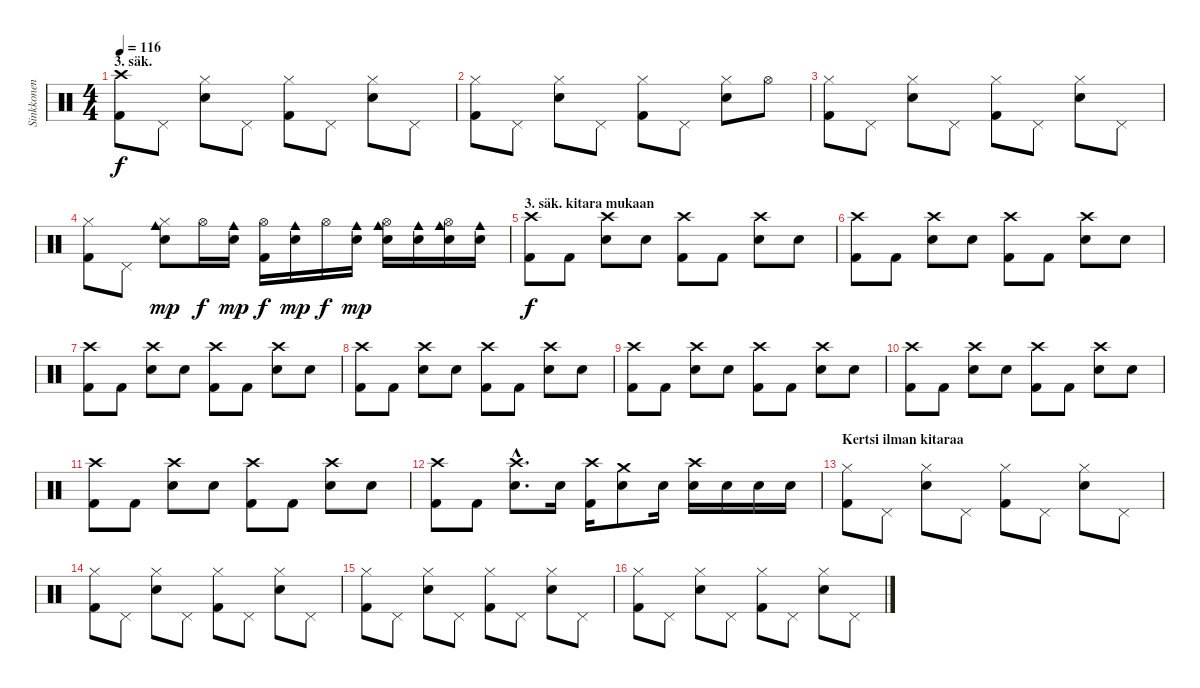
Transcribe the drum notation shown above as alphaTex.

\track ("Sinkkonen" "Sinkkonen") {instrument percussion}
\staff {score}
\articulation defaults
\ts (4 4)
\section ("" "3. säk.")
\tempo 116
\clef neutral
\ks c
("Kick (hit) 2" "Crash high (hit)").8{dy f} "Pedal Hi-Hat (hit)".8 ("Hi-Hat (closed)" "Snare (hit) 2").8 "Pedal Hi-Hat (hit)".8 ("Kick (hit) 2" "Hi-Hat (closed)").8 "Pedal Hi-Hat (hit)".8 ("Hi-Hat (closed)" "Snare (hit) 2").8 "Pedal Hi-Hat (hit)".8 |
("Kick (hit) 2" "Hi-Hat (closed)").8 "Pedal Hi-Hat (hit)".8 ("Hi-Hat (closed)" "Snare (hit) 2").8 "Pedal Hi-Hat (hit)".8 ("Kick (hit) 2" "Hi-Hat (closed)").8 "Pedal Hi-Hat (hit)".8 ("Hi-Hat (closed)" "Snare (hit) 2").8 "Hi-Hat (open)".8 |
("Kick (hit) 2" "Hi-Hat (closed)").8 "Pedal Hi-Hat (hit)".8 ("Hi-Hat (closed)" "Snare (hit) 2").8 "Pedal Hi-Hat (hit)".8 ("Kick (hit) 2" "Hi-Hat (closed)").8 "Pedal Hi-Hat (hit)".8 ("Hi-Hat (closed)" "Snare (hit) 2").8 "Pedal Hi-Hat (hit)".8 |
("Kick (hit) 2" "Hi-Hat (closed)").8 "Pedal Hi-Hat (hit)".8 ("Hi-Hat (closed)" "Snare (hit) 2" "Cowbell medium (hit)").8{dy mp} "Hi-Hat (open)".16{dy f} ("Snare (hit) 2" "Cowbell medium (hit)").16{dy mp} ("Kick (hit) 2" "Hi-Hat (open)").16{dy f} ("Snare (hit) 2" "Cowbell medium (hit)").16{dy mp} "Hi-Hat (open)".16{dy f} ("Snare (hit) 2" "Cowbell medium (hit)").16{dy mp} ("Hi-Hat (open)" "Snare (hit) 2" "Cowbell medium (hit)").16 ("Snare (hit) 2" "Cowbell medium (hit)").16 ("Hi-Hat (open)" "Snare (hit) 2" "Cowbell medium (hit)").16 ("Snare (hit) 2" "Cowbell medium (hit)").16 |
\section ("" "3. säk. kitara mukaan")
("Kick (hit) 2" "Crash high (hit)").8{dy f} "Kick (hit) 2".8 ("Crash high (hit)" "Snare (hit) 2").8 "Snare (hit) 2".8 ("Kick (hit) 2" "Crash high (hit)").8 "Kick (hit) 2".8 ("Crash high (hit)" "Snare (hit) 2").8 "Snare (hit) 2".8 |
("Kick (hit) 2" "Crash high (hit)").8 "Kick (hit) 2".8 ("Crash high (hit)" "Snare (hit) 2").8 "Snare (hit) 2".8 ("Kick (hit) 2" "Crash high (hit)").8 "Kick (hit) 2".8 ("Crash high (hit)" "Snare (hit) 2").8 "Snare (hit) 2".8 |
("Kick (hit) 2" "Crash high (hit)").8 "Kick (hit) 2".8 ("Crash high (hit)" "Snare (hit) 2").8 "Snare (hit) 2".8 ("Kick (hit) 2" "Crash high (hit)").8 "Kick (hit) 2".8 ("Crash high (hit)" "Snare (hit) 2").8 "Snare (hit) 2".8 |
("Kick (hit) 2" "Crash high (hit)").8 "Kick (hit) 2".8 ("Crash high (hit)" "Snare (hit) 2").8 "Snare (hit) 2".8 ("Kick (hit) 2" "Crash high (hit)").8 "Kick (hit) 2".8 ("Crash high (hit)" "Snare (hit) 2").8 "Snare (hit) 2".8 |
("Kick (hit) 2" "Crash high (hit)").8 "Kick (hit) 2".8 ("Crash high (hit)" "Snare (hit) 2").8 "Snare (hit) 2".8 ("Kick (hit) 2" "Crash high (hit)").8 "Kick (hit) 2".8 ("Crash high (hit)" "Snare (hit) 2").8 "Snare (hit) 2".8 |
("Kick (hit) 2" "Crash high (hit)").8 "Kick (hit) 2".8 ("Crash high (hit)" "Snare (hit) 2").8 "Snare (hit) 2".8 ("Kick (hit) 2" "Crash high (hit)").8 "Kick (hit) 2".8 ("Crash high (hit)" "Snare (hit) 2").8 "Snare (hit) 2".8 |
("Kick (hit) 2" "Crash high (hit)").8 "Kick (hit) 2".8 ("Crash high (hit)" "Snare (hit) 2").8 "Snare (hit) 2".8 ("Kick (hit) 2" "Crash high (hit)").8 "Kick (hit) 2".8 ("Crash high (hit)" "Snare (hit) 2").8 "Snare (hit) 2".8 |
("Kick (hit) 2" "Crash high (hit)").8 "Kick (hit) 2".8 ("Crash high (hit)"{hac} "Snare (hit) 2"{hac}).8{d} "Snare (hit) 2".16 ("Kick (hit) 2" "Crash high (hit)").16 ("Crash medium (hit)" "Snare (hit) 2").8 "Snare (hit) 2".16 ("Crash high (hit)" "Snare (hit) 2").16 "Snare (hit) 2".16 "Snare (hit) 2".16 "Snare (hit) 2".16 |
\section ("" "Kertsi ilman kitaraa")
("Kick (hit) 2" "Hi-Hat (closed)").8 "Pedal Hi-Hat (hit)".8 ("Hi-Hat (closed)" "Snare (hit) 2").8 "Pedal Hi-Hat (hit)".8 ("Kick (hit) 2" "Hi-Hat (closed)").8 "Pedal Hi-Hat (hit)".8 ("Hi-Hat (closed)" "Snare (hit) 2").8 "Pedal Hi-Hat (hit)".8 |
("Kick (hit) 2" "Hi-Hat (closed)").8 "Pedal Hi-Hat (hit)".8 ("Hi-Hat (closed)" "Snare (hit) 2").8 "Pedal Hi-Hat (hit)".8 ("Kick (hit) 2" "Hi-Hat (closed)").8 "Pedal Hi-Hat (hit)".8 ("Hi-Hat (closed)" "Snare (hit) 2").8 "Pedal Hi-Hat (hit)".8 |
("Kick (hit) 2" "Hi-Hat (closed)").8 "Pedal Hi-Hat (hit)".8 ("Hi-Hat (closed)" "Snare (hit) 2").8 "Pedal Hi-Hat (hit)".8 ("Kick (hit) 2" "Hi-Hat (closed)").8 "Pedal Hi-Hat (hit)".8 ("Hi-Hat (closed)" "Snare (hit) 2").8 "Pedal Hi-Hat (hit)".8 |
("Kick (hit) 2" "Hi-Hat (closed)").8 "Pedal Hi-Hat (hit)".8 ("Hi-Hat (closed)" "Snare (hit) 2").8 "Pedal Hi-Hat (hit)".8 ("Kick (hit) 2" "Hi-Hat (closed)").8 "Pedal Hi-Hat (hit)".8 ("Hi-Hat (closed)" "Snare (hit) 2").8 "Pedal Hi-Hat (hit)".8
